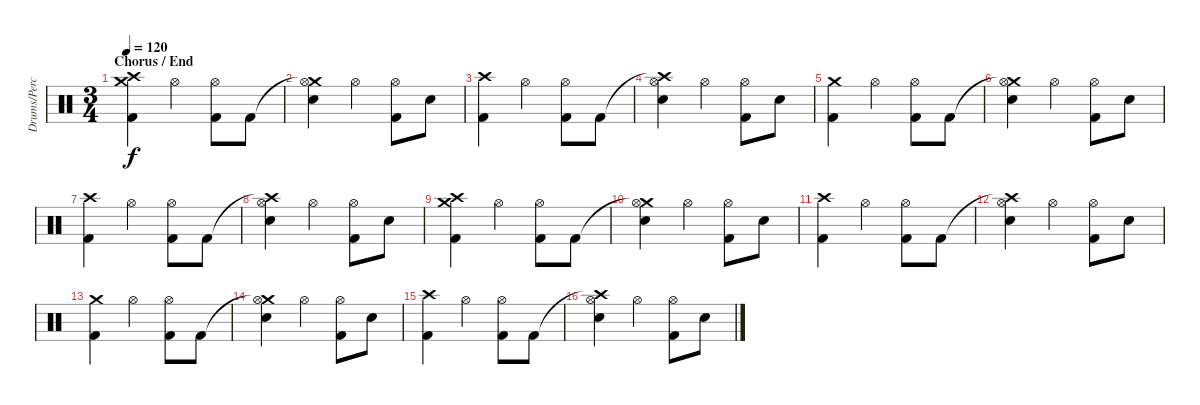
\track ("Drums/Percussion" "Drums/Perc") {instrument percussion}
\staff {score}
\articulation defaults
\ts (3 4)
\section ("" "Chorus / End")
\tempo 120
\clef neutral
\ks c
("Crash medium (hit)" "Crash high (hit)" "Kick (hit) 2").4{dy f} "Hi-Hat (open)".4 ("Hi-Hat (open)" "Kick (hit) 2").8 "Kick (hit) 2".8 |
("Crash medium (hit)"{t} "Hi-Hat (open)" "Snare (hit) 2").4 "Hi-Hat (open)".4 ("Hi-Hat (open)" "Kick (hit) 2").8 "Snare (hit) 2".8 |
("Crash high (hit)" "Kick (hit) 2").4 "Hi-Hat (open)".4 ("Hi-Hat (open)" "Kick (hit) 2").8 "Kick (hit) 2".8 |
("Crash high (hit)"{t} "Hi-Hat (open)" "Snare (hit) 2").4 "Hi-Hat (open)".4 ("Hi-Hat (open)" "Kick (hit) 2").8 "Snare (hit) 2".8 |
("Crash medium (hit)" "Kick (hit) 2").4 "Hi-Hat (open)".4 ("Hi-Hat (open)" "Kick (hit) 2").8 "Kick (hit) 2".8 |
("Crash medium (hit)"{t} "Hi-Hat (open)" "Snare (hit) 2").4 "Hi-Hat (open)".4 ("Hi-Hat (open)" "Kick (hit) 2").8 "Snare (hit) 2".8 |
("Crash high (hit)" "Kick (hit) 2").4 "Hi-Hat (open)".4 ("Hi-Hat (open)" "Kick (hit) 2").8 "Kick (hit) 2".8 |
("Crash high (hit)"{t} "Hi-Hat (open)" "Snare (hit) 2").4 "Hi-Hat (open)".4 ("Hi-Hat (open)" "Kick (hit) 2").8 "Snare (hit) 2".8 |
("Crash medium (hit)" "Crash high (hit)" "Kick (hit) 2").4 "Hi-Hat (open)".4 ("Hi-Hat (open)" "Kick (hit) 2").8 "Kick (hit) 2".8 |
("Crash medium (hit)"{t} "Hi-Hat (open)" "Snare (hit) 2").4 "Hi-Hat (open)".4 ("Hi-Hat (open)" "Kick (hit) 2").8 "Snare (hit) 2".8 |
("Crash high (hit)" "Kick (hit) 2").4 "Hi-Hat (open)".4 ("Hi-Hat (open)" "Kick (hit) 2").8 "Kick (hit) 2".8 |
("Crash high (hit)"{t} "Hi-Hat (open)" "Snare (hit) 2").4 "Hi-Hat (open)".4 ("Hi-Hat (open)" "Kick (hit) 2").8 "Snare (hit) 2".8 |
("Crash medium (hit)" "Kick (hit) 2").4 "Hi-Hat (open)".4 ("Hi-Hat (open)" "Kick (hit) 2").8 "Kick (hit) 2".8 |
("Crash medium (hit)"{t} "Hi-Hat (open)" "Snare (hit) 2").4 "Hi-Hat (open)".4 ("Hi-Hat (open)" "Kick (hit) 2").8 "Snare (hit) 2".8 |
("Crash high (hit)" "Kick (hit) 2").4 "Hi-Hat (open)".4 ("Hi-Hat (open)" "Kick (hit) 2").8 "Kick (hit) 2".8 |
("Crash high (hit)"{t} "Hi-Hat (open)" "Snare (hit) 2").4 "Hi-Hat (open)".4 ("Hi-Hat (open)" "Kick (hit) 2").8 "Snare (hit) 2".8
